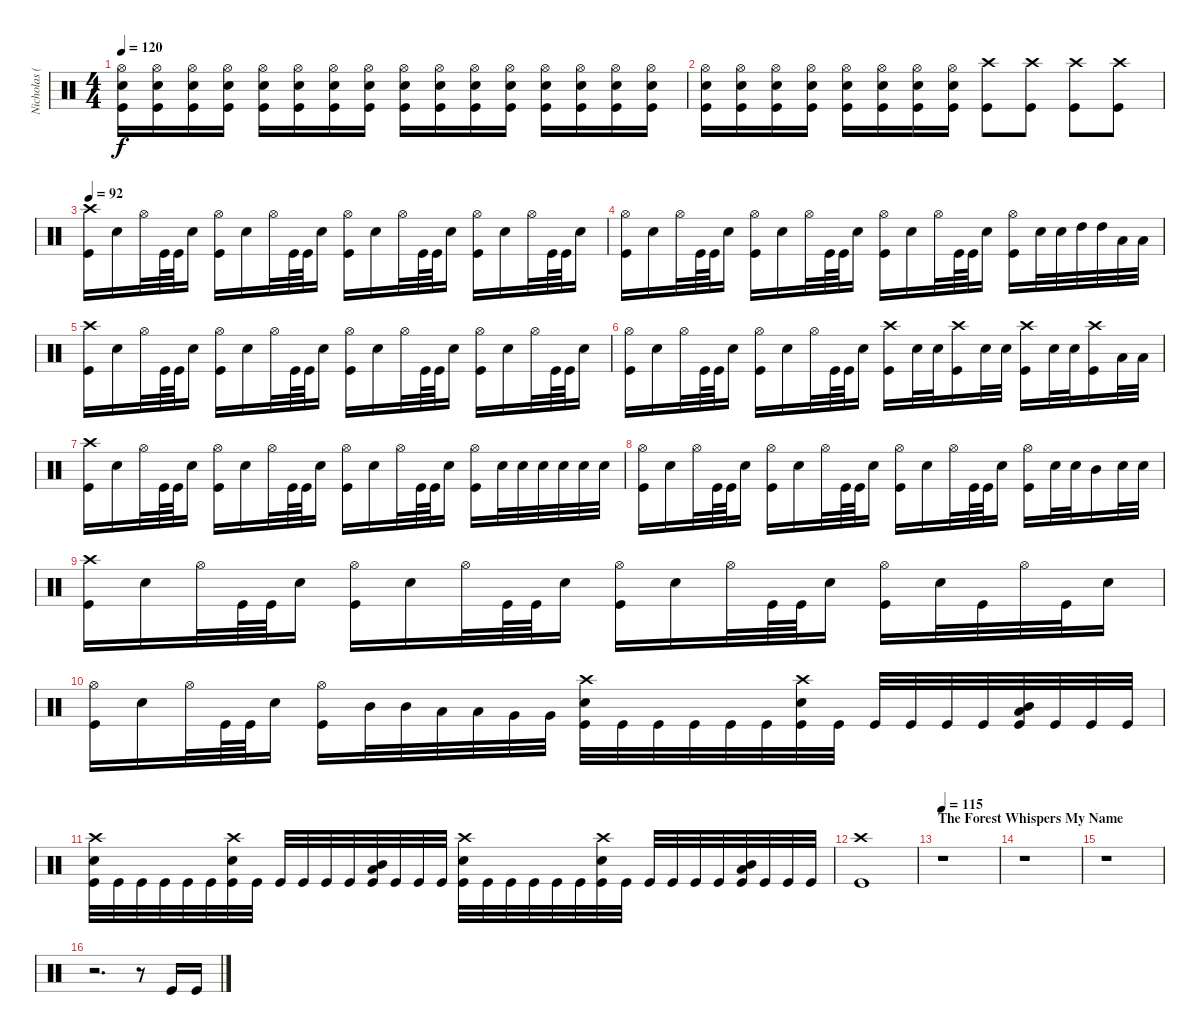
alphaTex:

\track ("Nicholas (Drums)" "Nicholas (") {instrument percussion}
\staff {score}
\articulation defaults
\ts (4 4)
\tempo 120
\clef neutral
\ks c
("Hi-Hat (open)" "Electric Snare (hit)" "Kick (hit)").16{dy f} ("Hi-Hat (open)" "Electric Snare (hit)" "Kick (hit)").16 ("Hi-Hat (open)" "Electric Snare (hit)" "Kick (hit)").16 ("Hi-Hat (open)" "Electric Snare (hit)" "Kick (hit)").16 ("Hi-Hat (open)" "Electric Snare (hit)" "Kick (hit)").16 ("Hi-Hat (open)" "Electric Snare (hit)" "Kick (hit)").16 ("Hi-Hat (open)" "Electric Snare (hit)" "Kick (hit)").16 ("Hi-Hat (open)" "Electric Snare (hit)" "Kick (hit)").16 ("Hi-Hat (open)" "Electric Snare (hit)" "Kick (hit)").16 ("Hi-Hat (open)" "Electric Snare (hit)" "Kick (hit)").16 ("Hi-Hat (open)" "Electric Snare (hit)" "Kick (hit)").16 ("Hi-Hat (open)" "Electric Snare (hit)" "Kick (hit)").16 ("Hi-Hat (open)" "Electric Snare (hit)" "Kick (hit)").16 ("Hi-Hat (open)" "Electric Snare (hit)" "Kick (hit)").16 ("Hi-Hat (open)" "Electric Snare (hit)" "Kick (hit)").16 ("Hi-Hat (open)" "Electric Snare (hit)" "Kick (hit)").16 |
("Hi-Hat (open)" "Electric Snare (hit)" "Kick (hit)").16 ("Hi-Hat (open)" "Electric Snare (hit)" "Kick (hit)").16 ("Hi-Hat (open)" "Electric Snare (hit)" "Kick (hit)").16 ("Hi-Hat (open)" "Electric Snare (hit)" "Kick (hit)").16 ("Hi-Hat (open)" "Electric Snare (hit)" "Kick (hit)").16 ("Hi-Hat (open)" "Electric Snare (hit)" "Kick (hit)").16 ("Hi-Hat (open)" "Electric Snare (hit)" "Kick (hit)").16 ("Hi-Hat (open)" "Electric Snare (hit)" "Kick (hit)").16 ("Crash high (hit)" "Kick (hit)").8 ("Crash high (hit)" "Kick (hit)").8 ("Crash high (hit)" "Kick (hit)").8 ("Crash high (hit)" "Kick (hit)").8 |
\tempo 92
("Crash high (hit)" "Kick (hit)").16 "Electric Snare (hit)".16 "Hi-Hat (open)".32 "Kick (hit)".64 "Kick (hit)".64 "Electric Snare (hit)".16 ("Hi-Hat (open)" "Kick (hit)").16 "Electric Snare (hit)".16 "Hi-Hat (open)".32 "Kick (hit)".64 "Kick (hit)".64 "Electric Snare (hit)".16 ("Hi-Hat (open)" "Kick (hit)").16 "Electric Snare (hit)".16 "Hi-Hat (open)".32 "Kick (hit)".64 "Kick (hit)".64 "Electric Snare (hit)".16 ("Hi-Hat (open)" "Kick (hit)").16 "Electric Snare (hit)".16 "Hi-Hat (open)".32 "Kick (hit)".64 "Kick (hit)".64 "Electric Snare (hit)".16 |
("Hi-Hat (open)" "Kick (hit)").16 "Electric Snare (hit)".16 "Hi-Hat (open)".32 "Kick (hit)".64 "Kick (hit)".64 "Electric Snare (hit)".16 ("Hi-Hat (open)" "Kick (hit)").16 "Electric Snare (hit)".16 "Hi-Hat (open)".32 "Kick (hit)".64 "Kick (hit)".64 "Electric Snare (hit)".16 ("Hi-Hat (open)" "Kick (hit)").16 "Electric Snare (hit)".16 "Hi-Hat (open)".32 "Kick (hit)".64 "Kick (hit)".64 "Electric Snare (hit)".16 ("Hi-Hat (open)" "Kick (hit)").16 "Electric Snare (hit)".32 "Electric Snare (hit)".32 "High Tom (hit)".32 "High Tom (hit)".32 "Low Tom (hit)".32 "Low Tom (hit)".32 |
("Crash high (hit)" "Kick (hit)").16 "Electric Snare (hit)".16 "Hi-Hat (open)".32 "Kick (hit)".64 "Kick (hit)".64 "Electric Snare (hit)".16 ("Hi-Hat (open)" "Kick (hit)").16 "Electric Snare (hit)".16 "Hi-Hat (open)".32 "Kick (hit)".64 "Kick (hit)".64 "Electric Snare (hit)".16 ("Hi-Hat (open)" "Kick (hit)").16 "Electric Snare (hit)".16 "Hi-Hat (open)".32 "Kick (hit)".64 "Kick (hit)".64 "Electric Snare (hit)".16 ("Hi-Hat (open)" "Kick (hit)").16 "Electric Snare (hit)".16 "Hi-Hat (open)".32 "Kick (hit)".64 "Kick (hit)".64 "Electric Snare (hit)".16 |
("Hi-Hat (open)" "Kick (hit)").16 "Electric Snare (hit)".16 "Hi-Hat (open)".32 "Kick (hit)".64 "Kick (hit)".64 "Electric Snare (hit)".16 ("Hi-Hat (open)" "Kick (hit)").16 "Electric Snare (hit)".16 "Hi-Hat (open)".32 "Kick (hit)".64 "Kick (hit)".64 "Electric Snare (hit)".16 ("Crash high (hit)" "Kick (hit)").16 "Electric Snare (hit)".32 "Electric Snare (hit)".32 ("Crash high (hit)" "Kick (hit)").16 "Electric Snare (hit)".32 "Electric Snare (hit)".32 ("Crash high (hit)" "Kick (hit)").16 "Electric Snare (hit)".32 "Electric Snare (hit)".32 ("Crash high (hit)" "Kick (hit)").16 "Low Tom (hit)".32 "Low Tom (hit)".32 |
("Crash high (hit)" "Kick (hit)").16 "Electric Snare (hit)".16 "Hi-Hat (open)".32 "Kick (hit)".64 "Kick (hit)".64 "Electric Snare (hit)".16 ("Hi-Hat (open)" "Kick (hit)").16 "Electric Snare (hit)".16 "Hi-Hat (open)".32 "Kick (hit)".64 "Kick (hit)".64 "Electric Snare (hit)".16 ("Hi-Hat (open)" "Kick (hit)").16 "Electric Snare (hit)".16 "Hi-Hat (open)".32 "Kick (hit)".64 "Kick (hit)".64 "Electric Snare (hit)".16 ("Hi-Hat (open)" "Kick (hit)").16 "Electric Snare (hit)".32 "Electric Snare (hit)".32 "Electric Snare (hit)".32 "Electric Snare (hit)".32 "Electric Snare (hit)".32 "Electric Snare (hit)".32 |
("Hi-Hat (open)" "Kick (hit)").16 "Electric Snare (hit)".16 "Hi-Hat (open)".32 "Kick (hit)".64 "Kick (hit)".64 "Electric Snare (hit)".16 ("Hi-Hat (open)" "Kick (hit)").16 "Electric Snare (hit)".16 "Hi-Hat (open)".32 "Kick (hit)".64 "Kick (hit)".64 "Electric Snare (hit)".16 ("Hi-Hat (open)" "Kick (hit)").16 "Electric Snare (hit)".16 "Hi-Hat (open)".32 "Kick (hit)".64 "Kick (hit)".64 "Electric Snare (hit)".16 ("Hi-Hat (open)" "Kick (hit)").16 "Electric Snare (hit)".32 "Electric Snare (hit)".32 "Mid Tom (hit)".16 "Electric Snare (hit)".32 "Electric Snare (hit)".32 |
("Crash high (hit)" "Kick (hit)").16 "Electric Snare (hit)".16 "Hi-Hat (open)".32 "Kick (hit)".64 "Kick (hit)".64 "Electric Snare (hit)".16 ("Hi-Hat (open)" "Kick (hit)").16 "Electric Snare (hit)".16 "Hi-Hat (open)".32 "Kick (hit)".64 "Kick (hit)".64 "Electric Snare (hit)".16 ("Hi-Hat (open)" "Kick (hit)").16 "Electric Snare (hit)".16 "Hi-Hat (open)".32 "Kick (hit)".64 "Kick (hit)".64 "Electric Snare (hit)".16 ("Hi-Hat (open)" "Kick (hit)").16 "Electric Snare (hit)".32 "Kick (hit)".32 "Hi-Hat (open)".32 "Kick (hit)".32 "Electric Snare (hit)".16 |
("Hi-Hat (open)" "Kick (hit)").16 "Electric Snare (hit)".16 "Hi-Hat (open)".32 "Kick (hit)".64 "Kick (hit)".64 "Electric Snare (hit)".16 ("Hi-Hat (open)" "Kick (hit)").16 "Mid Tom (hit)".32 "Mid Tom (hit)".32 "Low Tom (hit)".32 "Low Tom (hit)".32 "Very Low Tom (hit)".32 "Very Low Tom (hit)".32 ("Crash high (hit)" "Electric Snare (hit)" "Kick (hit)").32 "Kick (hit)".32 "Kick (hit)".32 "Kick (hit)".32 "Kick (hit)".32 "Kick (hit)".32 ("Crash high (hit)" "Electric Snare (hit)" "Kick (hit)").32 "Kick (hit)".32 "Kick (hit)".32 "Kick (hit)".32 "Kick (hit)".32 "Kick (hit)".32 ("Mid Tom (hit)" "Low Tom (hit)" "Kick (hit)").32{bd 60} "Kick (hit)".32 "Kick (hit)".32 "Kick (hit)".32 |
("Crash high (hit)" "Electric Snare (hit)" "Kick (hit)").32 "Kick (hit)".32 "Kick (hit)".32 "Kick (hit)".32 "Kick (hit)".32 "Kick (hit)".32 ("Crash high (hit)" "Electric Snare (hit)" "Kick (hit)").32 "Kick (hit)".32 "Kick (hit)".32 "Kick (hit)".32 "Kick (hit)".32 "Kick (hit)".32 ("Mid Tom (hit)" "Low Tom (hit)" "Kick (hit)").32{bd 60} "Kick (hit)".32 "Kick (hit)".32 "Kick (hit)".32 ("Crash high (hit)" "Electric Snare (hit)" "Kick (hit)").32 "Kick (hit)".32 "Kick (hit)".32 "Kick (hit)".32 "Kick (hit)".32 "Kick (hit)".32 ("Crash high (hit)" "Electric Snare (hit)" "Kick (hit)").32 "Kick (hit)".32 "Kick (hit)".32 "Kick (hit)".32 "Kick (hit)".32 "Kick (hit)".32 ("Mid Tom (hit)" "Low Tom (hit)" "Kick (hit)").32{bd 60} "Kick (hit)".32 "Kick (hit)".32 "Kick (hit)".32 |
("Crash high (hit)" "Kick (hit)").1 |
\section ("" "The Forest Whispers My Name")
\tempo 115
r.1 |
r.1 |
r.1 |
r.2{d} r.8 "Kick (hit)".16 "Kick (hit)".16
